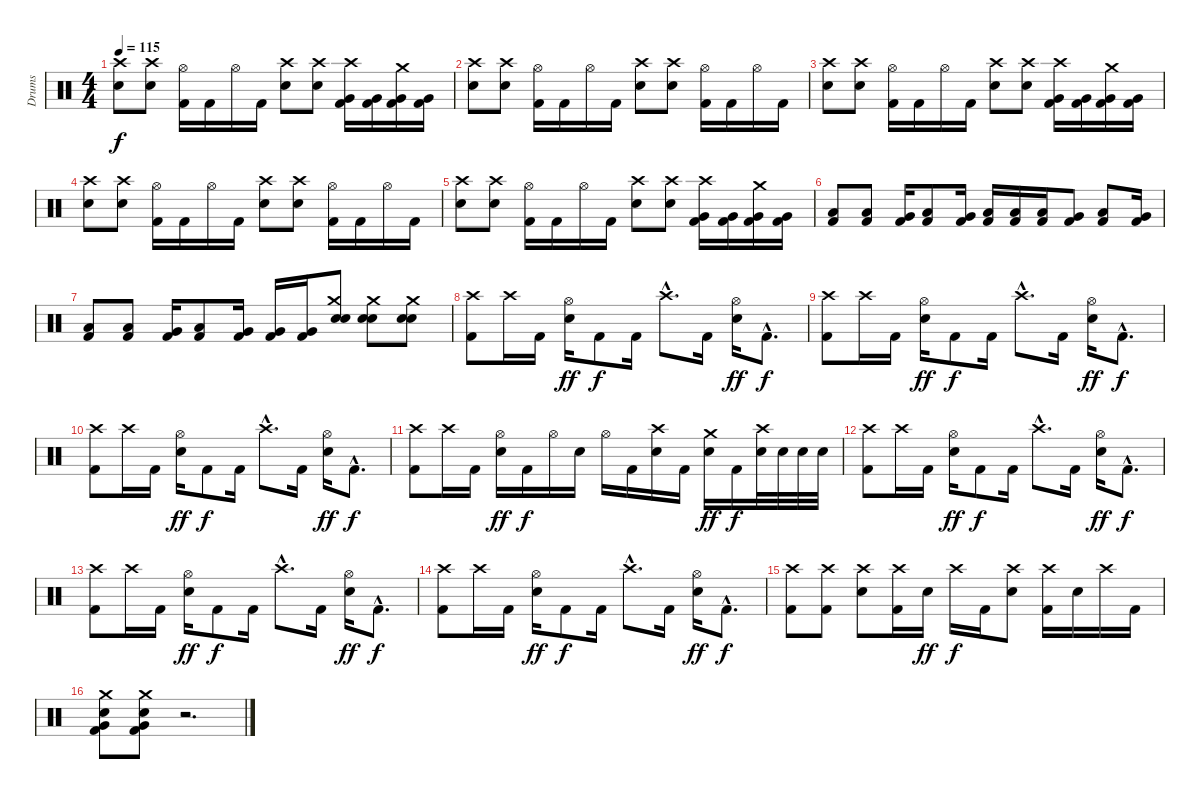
\track ("Drums" "Drums") {instrument percussion}
\staff {score}
\articulation defaults
\ts (4 4)
\tempo 115
\clef neutral
\ks c
("Crash high (hit)" "Electric Snare (hit)").8{dy f} ("Crash high (hit)" "Electric Snare (hit)").8 ("Hi-Hat (open)" "Kick (hit) 2").16 "Kick (hit) 2".16 "Hi-Hat (open)".16 "Kick (hit) 2".16 ("Crash high (hit)" "Electric Snare (hit)").8 ("Crash high (hit)" "Electric Snare (hit)").8 ("Crash high (hit)" "Very Low Tom (hit)" "Kick (hit) 2").16 ("Very Low Tom (hit)" "Kick (hit) 2").16 ("Crash medium (hit)" "Very Low Tom (hit)" "Kick (hit) 2").16 ("Very Low Tom (hit)" "Kick (hit) 2").16 |
("Crash high (hit)" "Electric Snare (hit)").8 ("Crash high (hit)" "Electric Snare (hit)").8 ("Hi-Hat (open)" "Kick (hit) 2").16 "Kick (hit) 2".16 "Hi-Hat (open)".16 "Kick (hit) 2".16 ("Crash high (hit)" "Electric Snare (hit)").8 ("Crash high (hit)" "Electric Snare (hit)").8 ("Hi-Hat (open)" "Kick (hit) 2").16 "Kick (hit) 2".16 "Hi-Hat (open)".16 "Kick (hit) 2".16 |
("Crash high (hit)" "Electric Snare (hit)").8 ("Crash high (hit)" "Electric Snare (hit)").8 ("Hi-Hat (open)" "Kick (hit) 2").16 "Kick (hit) 2".16 "Hi-Hat (open)".16 "Kick (hit) 2".16 ("Crash high (hit)" "Electric Snare (hit)").8 ("Crash high (hit)" "Electric Snare (hit)").8 ("Crash high (hit)" "Very Low Tom (hit)" "Kick (hit) 2").16 ("Very Low Tom (hit)" "Kick (hit) 2").16 ("Crash medium (hit)" "Very Low Tom (hit)" "Kick (hit) 2").16 ("Very Low Tom (hit)" "Kick (hit) 2").16 |
("Crash high (hit)" "Electric Snare (hit)").8 ("Crash high (hit)" "Electric Snare (hit)").8 ("Hi-Hat (open)" "Kick (hit) 2").16 "Kick (hit) 2".16 "Hi-Hat (open)".16 "Kick (hit) 2".16 ("Crash high (hit)" "Electric Snare (hit)").8 ("Crash high (hit)" "Electric Snare (hit)").8 ("Hi-Hat (open)" "Kick (hit) 2").16 "Kick (hit) 2".16 "Hi-Hat (open)".16 "Kick (hit) 2".16 |
("Crash high (hit)" "Electric Snare (hit)").8 ("Crash high (hit)" "Electric Snare (hit)").8 ("Hi-Hat (open)" "Kick (hit) 2").16 "Kick (hit) 2".16 "Hi-Hat (open)".16 "Kick (hit) 2".16 ("Crash high (hit)" "Electric Snare (hit)").8 ("Crash high (hit)" "Electric Snare (hit)").8 ("Crash high (hit)" "Very Low Tom (hit)" "Kick (hit) 2").16 ("Very Low Tom (hit)" "Kick (hit) 2").16 ("Crash medium (hit)" "Very Low Tom (hit)" "Kick (hit) 2").16 ("Very Low Tom (hit)" "Kick (hit) 2").16 |
("Low Tom (hit)" "Kick (hit) 2").8 ("Low Tom (hit)" "Kick (hit) 2").8 ("Very Low Tom (hit)" "Kick (hit) 2").16 ("Low Tom (hit)" "Kick (hit) 2").8 ("Very Low Tom (hit)" "Kick (hit) 2").16 ("Low Tom (hit)" "Kick (hit) 2").16 ("Low Tom (hit)" "Kick (hit) 2").16 ("Low Tom (hit)" "Kick (hit) 2").16 ("Very Low Tom (hit)" "Kick (hit) 2").8 ("Low Tom (hit)" "Kick (hit) 2").8 ("Very Low Tom (hit)" "Kick (hit) 2").16 |
("Low Tom (hit)" "Kick (hit) 2").8 ("Low Tom (hit)" "Kick (hit) 2").8 ("Very Low Tom (hit)" "Kick (hit) 2").16 ("Low Tom (hit)" "Kick (hit) 2").8 ("Very Low Tom (hit)" "Kick (hit) 2").16 ("Very Low Tom (hit)" "Kick (hit) 2").16 ("Very Low Tom (hit)" "Kick (hit) 2").16 ("Snare (hit) 2" "Crash medium (hit)" "Electric Snare (hit)").8 ("Snare (hit) 2" "Crash medium (hit)" "Electric Snare (hit)").8 ("Snare (hit) 2" "Crash medium (hit)" "Electric Snare (hit)").8 |
("Crash high (hit)" "Kick (hit) 2").8 "Crash high (hit)".16 "Kick (hit) 2".16 ("Hi-Hat (open)" "Electric Snare (hit)").16{dy ff} "Kick (hit) 2".8{dy f} "Kick (hit) 2".16 "Crash high (hit)"{hac}.8{d} "Kick (hit) 2".16 ("Hi-Hat (open)" "Electric Snare (hit)").16{dy ff} "Kick (hit) 2"{hac}.8{d dy f} |
("Crash high (hit)" "Kick (hit) 2").8 "Crash high (hit)".16 "Kick (hit) 2".16 ("Hi-Hat (open)" "Electric Snare (hit)").16{dy ff} "Kick (hit) 2".8{dy f} "Kick (hit) 2".16 "Crash high (hit)"{hac}.8{d} "Kick (hit) 2".16 ("Hi-Hat (open)" "Electric Snare (hit)").16{dy ff} "Kick (hit) 2"{hac}.8{d dy f} |
("Crash high (hit)" "Kick (hit) 2").8 "Crash high (hit)".16 "Kick (hit) 2".16 ("Hi-Hat (open)" "Electric Snare (hit)").16{dy ff} "Kick (hit) 2".8{dy f} "Kick (hit) 2".16 "Crash high (hit)"{hac}.8{d} "Kick (hit) 2".16 ("Hi-Hat (open)" "Electric Snare (hit)").16{dy ff} "Kick (hit) 2"{hac}.8{d dy f} |
("Crash high (hit)" "Kick (hit) 2").8 "Crash high (hit)".16 "Kick (hit) 2".16 ("Hi-Hat (open)" "Electric Snare (hit)").16{dy ff} "Kick (hit) 2".16{dy f} "Hi-Hat (open)".16 "Electric Snare (hit)".16 "Hi-Hat (open)".16 "Kick (hit) 2".16 ("Crash high (hit)" "Electric Snare (hit)").16 "Kick (hit) 2".16 ("Crash medium (hit)" "Electric Snare (hit)").16{dy ff} "Kick (hit) 2".16{dy f} ("Crash high (hit)" "Electric Snare (hit)").32 "Electric Snare (hit)".32 "Electric Snare (hit)".32 "Electric Snare (hit)".32 |
("Crash high (hit)" "Kick (hit) 2").8 "Crash high (hit)".16 "Kick (hit) 2".16 ("Hi-Hat (open)" "Electric Snare (hit)").16{dy ff} "Kick (hit) 2".8{dy f} "Kick (hit) 2".16 "Crash high (hit)"{hac}.8{d} "Kick (hit) 2".16 ("Hi-Hat (open)" "Electric Snare (hit)").16{dy ff} "Kick (hit) 2"{hac}.8{d dy f} |
("Crash high (hit)" "Kick (hit) 2").8 "Crash high (hit)".16 "Kick (hit) 2".16 ("Hi-Hat (open)" "Electric Snare (hit)").16{dy ff} "Kick (hit) 2".8{dy f} "Kick (hit) 2".16 "Crash high (hit)"{hac}.8{d} "Kick (hit) 2".16 ("Hi-Hat (open)" "Electric Snare (hit)").16{dy ff} "Kick (hit) 2"{hac}.8{d dy f} |
("Crash high (hit)" "Kick (hit) 2").8 "Crash high (hit)".16 "Kick (hit) 2".16 ("Hi-Hat (open)" "Electric Snare (hit)").16{dy ff} "Kick (hit) 2".8{dy f} "Kick (hit) 2".16 "Crash high (hit)"{hac}.8{d} "Kick (hit) 2".16 ("Hi-Hat (open)" "Electric Snare (hit)").16{dy ff} "Kick (hit) 2"{hac}.8{d dy f} |
("Crash high (hit)" "Kick (hit) 2").8 ("Crash high (hit)" "Kick (hit) 2").8 ("Crash high (hit)" "Electric Snare (hit)").8 ("Crash high (hit)" "Kick (hit) 2").16 "Electric Snare (hit)".16{dy ff} "Crash high (hit)".16{dy f} "Kick (hit) 2".16 ("Crash high (hit)" "Electric Snare (hit)").8 ("Crash high (hit)" "Kick (hit) 2").16 "Electric Snare (hit)".16 "Crash high (hit)".16 "Kick (hit) 2".16 |
("Very Low Tom (hit)" "Crash medium (hit)" "Electric Snare (hit)" "Kick (hit) 2").8 ("Very Low Tom (hit)" "Crash medium (hit)" "Electric Snare (hit)" "Kick (hit) 2").8 r.2{d}
